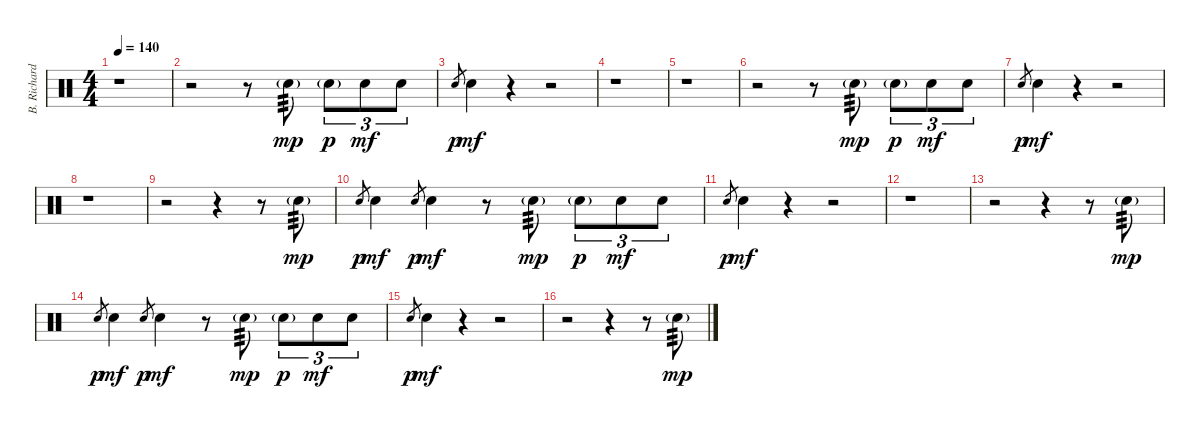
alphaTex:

\track ("B. Richardson Drums" "B. Richard") {instrument percussion}
\staff {score}
\articulation defaults
\ts (4 4)
\tempo 140
\clef neutral
\ks c
r.1{dy mf} |
r.2 r.8 "Snare (hit) 2"{g}.8{tp 3 dy mp} "Snare (hit) 2"{g}.8{tu (3 2) dy p} "Snare (hit) 2".8{tu (3 2) dy mf} "Snare (hit) 2".8{tu (3 2)} |
"Snare (hit) 2".8{gr dy p} "Snare (hit) 2".4{dy mf} r.4 r.2 |
r.1 |
r.1 |
r.2 r.8 "Snare (hit) 2"{g}.8{tp 3 dy mp} "Snare (hit) 2"{g}.8{tu (3 2) dy p} "Snare (hit) 2".8{tu (3 2) dy mf} "Snare (hit) 2".8{tu (3 2)} |
"Snare (hit) 2".8{gr dy p} "Snare (hit) 2".4{dy mf} r.4 r.2 |
r.1 |
r.2 r.4 r.8 "Snare (hit) 2"{g}.8{tp 3 dy mp} |
"Snare (hit) 2".8{gr dy p} "Snare (hit) 2".4{dy mf} "Snare (hit) 2".8{gr dy p} "Snare (hit) 2".4{dy mf} r.8 "Snare (hit) 2"{g}.8{tp 3 dy mp} "Snare (hit) 2"{g}.8{tu (3 2) dy p} "Snare (hit) 2".8{tu (3 2) dy mf} "Snare (hit) 2".8{tu (3 2)} |
"Snare (hit) 2".8{gr dy p} "Snare (hit) 2".4{dy mf} r.4 r.2 |
r.1 |
r.2 r.4 r.8 "Snare (hit) 2"{g}.8{tp 3 dy mp} |
"Snare (hit) 2".8{gr dy p} "Snare (hit) 2".4{dy mf} "Snare (hit) 2".8{gr dy p} "Snare (hit) 2".4{dy mf} r.8 "Snare (hit) 2"{g}.8{tp 3 dy mp} "Snare (hit) 2"{g}.8{tu (3 2) dy p} "Snare (hit) 2".8{tu (3 2) dy mf} "Snare (hit) 2".8{tu (3 2)} |
"Snare (hit) 2".8{gr dy p} "Snare (hit) 2".4{dy mf} r.4 r.2 |
r.2 r.4 r.8 "Snare (hit) 2"{g}.8{tp 3 dy mp}
